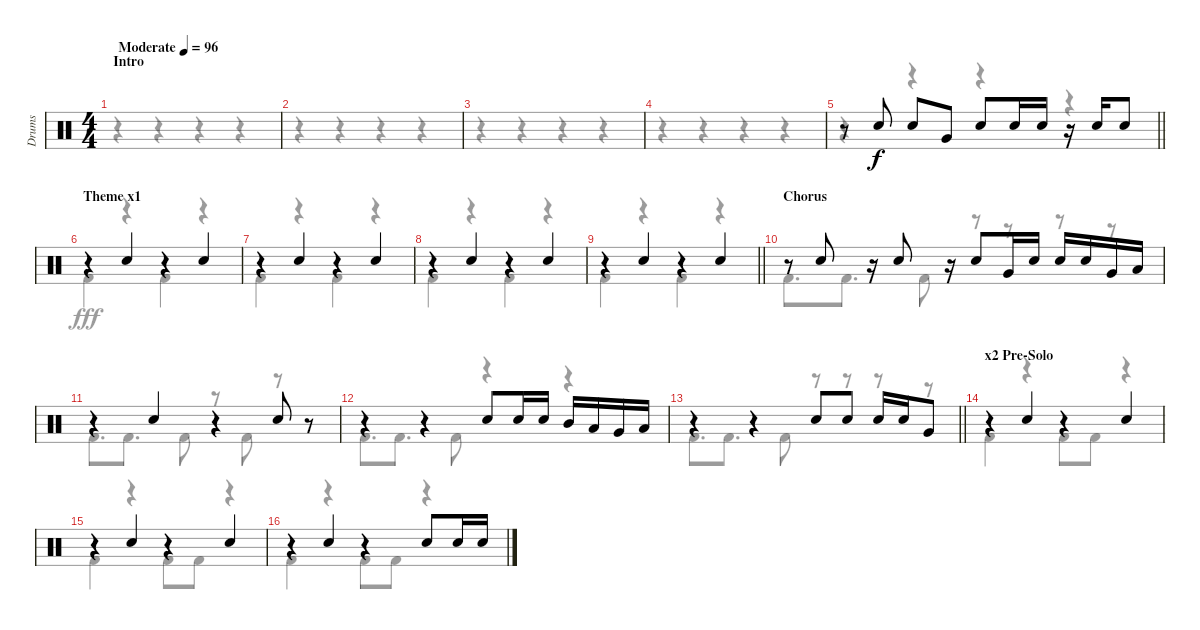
\track ("Drums" "Drums") {instrument percussion}
\staff {score}
\articulation defaults
\voice
\ts (4 4)
\section ("" "Intro")
\tempo (96 "Moderate")
\clef neutral
\ks c
|
|
|
|
\barLineRight lightlight
r.8 "Snare (hit) 2".8 "Snare (hit) 2".8 "Very Low Tom (hit)".8 "Snare (hit) 2".8 "Snare (hit) 2".16 "Snare (hit) 2".16 r.16 "Snare (hit) 2".16 "Snare (hit) 2".8 |
\section ("" "Theme x1")
r.4 "Snare (hit) 2".4 r.4 "Snare (hit) 2".4 |
r.4 "Snare (hit) 2".4 r.4 "Snare (hit) 2".4 |
r.4 "Snare (hit) 2".4 r.4 "Snare (hit) 2".4 |
\barLineRight lightlight
r.4 "Snare (hit) 2".4 r.4 "Snare (hit) 2".4 |
\section ("" "Chorus")
r.8 "Snare (hit) 2".8 r.16 "Snare (hit) 2".8 r.16 "Snare (hit) 2".8 "Very Low Tom (hit)".16 "Snare (hit) 2".16 "Snare (hit) 2".16 "Snare (hit) 2".16 "Very Low Tom (hit)".16 "Low Floor Tom (hit)".16 |
r.4 "Snare (hit) 2".4 r.4 "Snare (hit) 2".8 r.8 |
r.4 r.4 "Snare (hit) 2".8 "Snare (hit) 2".16 "Snare (hit) 2".16 "Mid Tom (hit)".16 "Low Tom (hit)".16 "Very Low Tom (hit)".16 "Low Floor Tom (hit)".16 |
\barLineRight lightlight
r.4 r.4 "Snare (hit) 2".8 "Snare (hit) 2".8 "Snare (hit) 2".16 "Snare (hit) 2".16 "Very Low Tom (hit)".8 |
\section ("" "x2 Pre-Solo")
r.4 "Snare (hit) 2".4 r.4 "Snare (hit) 2".4 |
r.4 "Snare (hit) 2".4 r.4 "Snare (hit) 2".4 |
r.4 "Snare (hit) 2".4 r.4 "Snare (hit) 2".8 "Snare (hit) 2".16 "Snare (hit) 2".16
\voice
\clef neutral
\ottava regular
\simile none
\ks c
r.4{dy fff} r.4 r.4 r.4 |
r.4 r.4 r.4 r.4 |
r.4 r.4 r.4 r.4 |
r.4 r.4 r.4 r.4 |
\barLineRight lightlight
r.4 r.4 r.4 r.4 |
"Kick (hit) 2".4 r.4 "Kick (hit) 2".4 r.4 |
"Kick (hit) 2".4 r.4 "Kick (hit) 2".4 r.4 |
"Kick (hit) 2".4 r.4 "Kick (hit) 2".4 r.4 |
\barLineRight lightlight "Kick (hit) 2".4
r.4 "Kick (hit) 2".4 r.4 |
"Kick (hit) 2".8{d} "Kick (hit) 2".8{d} "Kick (hit) 2".8 r.8 r.8 r.8 r.8 |
"Kick (hit) 2".8{d} "Kick (hit) 2".8{d} "Kick (hit) 2".8 r.8 "Kick (hit) 2".8 r.8 r.8 |
"Kick (hit) 2".8{d} "Kick (hit) 2".8{d} "Kick (hit) 2".8 r.4 r.4 |
\barLineRight lightlight "Kick (hit) 2".8{d} "Kick (hit) 2".8{d} "Kick (hit) 2".8
r.8 r.8 r.8 r.8 |
"Kick (hit) 2".4 r.4 "Kick (hit) 2".8 "Kick (hit) 2".8 r.4 |
"Kick (hit) 2".4 r.4 "Kick (hit) 2".8 "Kick (hit) 2".8 r.4 |
"Kick (hit) 2".4 r.4 "Kick (hit) 2".8 "Kick (hit) 2".8 r.4
